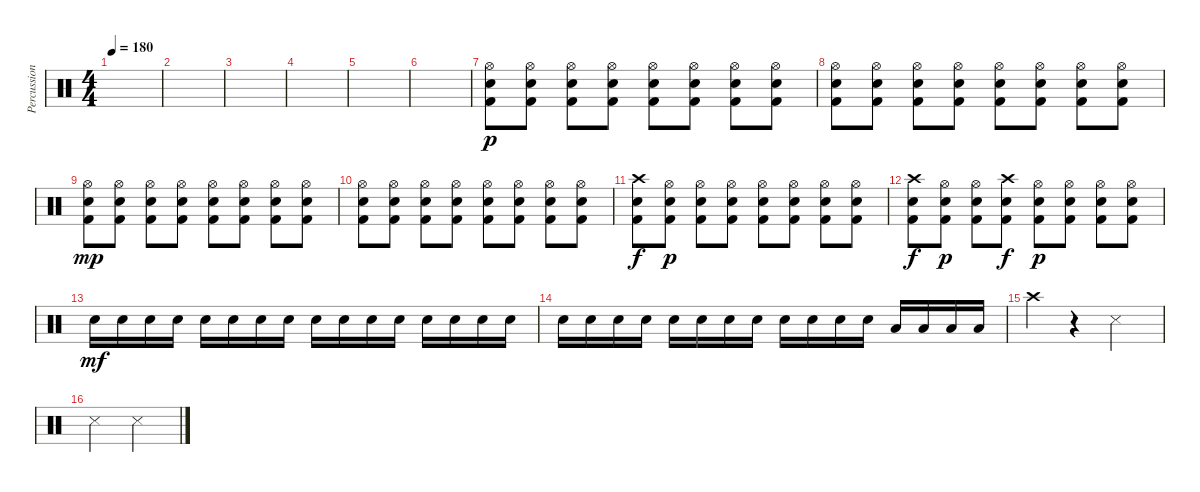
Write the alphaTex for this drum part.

\track ("Percussion" "Percussion") {instrument percussion}
\staff {score}
\articulation defaults
\ts (4 4)
\tempo 180
\clef neutral
\ks c
|
|
|
|
|
|
("Hi-Hat (open)" "Electric Snare (hit)" "Kick (hit) 2").8{dy p} ("Hi-Hat (open)" "Electric Snare (hit)" "Kick (hit) 2").8 ("Hi-Hat (open)" "Electric Snare (hit)" "Kick (hit) 2").8 ("Hi-Hat (open)" "Electric Snare (hit)" "Kick (hit) 2").8 ("Hi-Hat (open)" "Electric Snare (hit)" "Kick (hit) 2").8 ("Hi-Hat (open)" "Electric Snare (hit)" "Kick (hit) 2").8 ("Hi-Hat (open)" "Electric Snare (hit)" "Kick (hit) 2").8 ("Hi-Hat (open)" "Electric Snare (hit)" "Kick (hit) 2").8 |
("Hi-Hat (open)" "Electric Snare (hit)" "Kick (hit) 2").8 ("Hi-Hat (open)" "Electric Snare (hit)" "Kick (hit) 2").8 ("Hi-Hat (open)" "Electric Snare (hit)" "Kick (hit) 2").8 ("Hi-Hat (open)" "Electric Snare (hit)" "Kick (hit) 2").8 ("Hi-Hat (open)" "Electric Snare (hit)" "Kick (hit) 2").8 ("Hi-Hat (open)" "Electric Snare (hit)" "Kick (hit) 2").8 ("Hi-Hat (open)" "Electric Snare (hit)" "Kick (hit) 2").8 ("Hi-Hat (open)" "Electric Snare (hit)" "Kick (hit) 2").8 |
("Hi-Hat (open)" "Electric Snare (hit)" "Kick (hit) 2").8{dy mp} ("Hi-Hat (open)" "Electric Snare (hit)" "Kick (hit) 2").8 ("Hi-Hat (open)" "Electric Snare (hit)" "Kick (hit) 2").8 ("Hi-Hat (open)" "Electric Snare (hit)" "Kick (hit) 2").8 ("Hi-Hat (open)" "Electric Snare (hit)" "Kick (hit) 2").8 ("Hi-Hat (open)" "Electric Snare (hit)" "Kick (hit) 2").8 ("Hi-Hat (open)" "Electric Snare (hit)" "Kick (hit) 2").8 ("Hi-Hat (open)" "Electric Snare (hit)" "Kick (hit) 2").8 |
("Hi-Hat (open)" "Electric Snare (hit)" "Kick (hit) 2").8 ("Hi-Hat (open)" "Electric Snare (hit)" "Kick (hit) 2").8 ("Hi-Hat (open)" "Electric Snare (hit)" "Kick (hit) 2").8 ("Hi-Hat (open)" "Electric Snare (hit)" "Kick (hit) 2").8 ("Hi-Hat (open)" "Electric Snare (hit)" "Kick (hit) 2").8 ("Hi-Hat (open)" "Electric Snare (hit)" "Kick (hit) 2").8 ("Hi-Hat (open)" "Electric Snare (hit)" "Kick (hit) 2").8 ("Hi-Hat (open)" "Electric Snare (hit)" "Kick (hit) 2").8 |
("Crash high (hit)" "Electric Snare (hit)" "Kick (hit) 2").8{dy f} ("Hi-Hat (open)" "Electric Snare (hit)" "Kick (hit) 2").8{dy p} ("Hi-Hat (open)" "Electric Snare (hit)" "Kick (hit) 2").8 ("Hi-Hat (open)" "Electric Snare (hit)" "Kick (hit) 2").8 ("Hi-Hat (open)" "Electric Snare (hit)" "Kick (hit) 2").8 ("Hi-Hat (open)" "Electric Snare (hit)" "Kick (hit) 2").8 ("Hi-Hat (open)" "Electric Snare (hit)" "Kick (hit) 2").8 ("Hi-Hat (open)" "Electric Snare (hit)" "Kick (hit) 2").8 |
("Crash high (hit)" "Electric Snare (hit)" "Kick (hit) 2").8{dy f} ("Hi-Hat (open)" "Electric Snare (hit)" "Kick (hit) 2").8{dy p} ("Hi-Hat (open)" "Electric Snare (hit)" "Kick (hit) 2").8 ("Crash high (hit)" "Electric Snare (hit)" "Kick (hit) 2").8{dy f} ("Hi-Hat (open)" "Electric Snare (hit)" "Kick (hit) 2").8{dy p} ("Hi-Hat (open)" "Electric Snare (hit)" "Kick (hit) 2").8 ("Hi-Hat (open)" "Electric Snare (hit)" "Kick (hit) 2").8 ("Hi-Hat (open)" "Electric Snare (hit)" "Kick (hit) 2").8 |
"Electric Snare (hit)".16{dy mf} "Electric Snare (hit)".16 "Electric Snare (hit)".16 "Electric Snare (hit)".16 "Electric Snare (hit)".16 "Electric Snare (hit)".16 "Electric Snare (hit)".16 "Electric Snare (hit)".16 "Electric Snare (hit)".16 "Electric Snare (hit)".16 "Electric Snare (hit)".16 "Electric Snare (hit)".16 "Electric Snare (hit)".16 "Electric Snare (hit)".16 "Electric Snare (hit)".16 "Electric Snare (hit)".16 |
"Electric Snare (hit)".16 "Electric Snare (hit)".16 "Electric Snare (hit)".16 "Electric Snare (hit)".16 "Electric Snare (hit)".16 "Electric Snare (hit)".16 "Electric Snare (hit)".16 "Electric Snare (hit)".16 "Electric Snare (hit)".16 "Electric Snare (hit)".16 "Electric Snare (hit)".16 "Electric Snare (hit)".16 "Low Tom (hit)".16 "Low Tom (hit)".16 "Low Tom (hit)".16 "Low Tom (hit)".16 |
"Crash high (hit)".4 r.4 "Metronome (hit)".2 |
"Metronome (hit)".2 "Metronome (hit)".2
